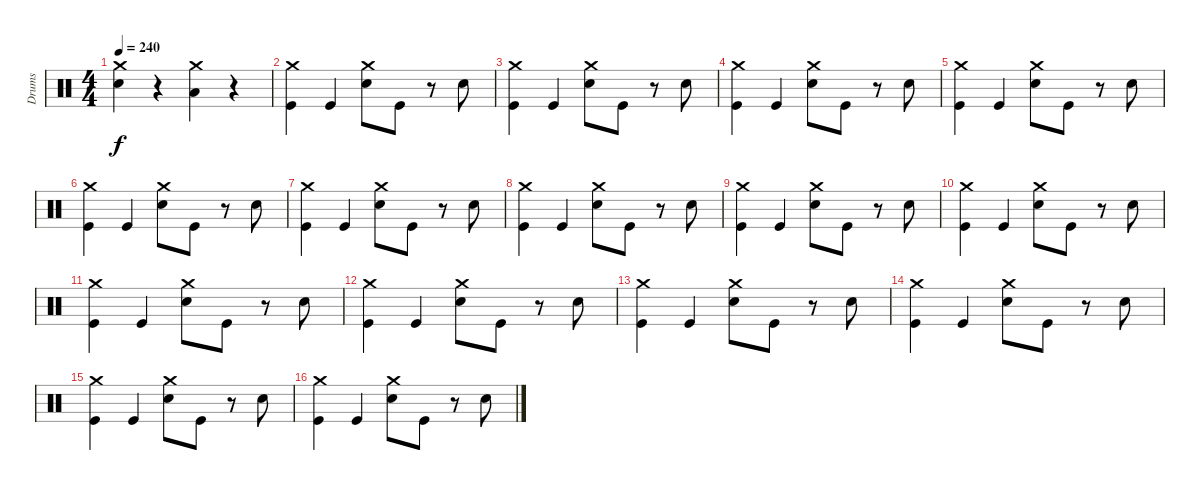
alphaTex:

\track ("Drums" "Drums") {instrument percussion}
\staff {score}
\articulation defaults
\ts (4 4)
\tempo 240
\clef neutral
\ks c
("Crash medium (hit)" "Snare (hit) 2").4{dy f} r.4 ("Crash medium (hit)" "Low Tom (hit)").4 r.4 |
("Crash medium (hit)" "Kick (hit)").4 "Kick (hit)".4 ("Crash medium (hit)" "Snare (hit) 2").8 "Kick (hit)".8 r.8 "Snare (hit) 2".8 |
("Crash medium (hit)" "Kick (hit)").4 "Kick (hit)".4 ("Crash medium (hit)" "Snare (hit) 2").8 "Kick (hit)".8 r.8 "Snare (hit) 2".8 |
("Crash medium (hit)" "Kick (hit)").4 "Kick (hit)".4 ("Crash medium (hit)" "Snare (hit) 2").8 "Kick (hit)".8 r.8 "Snare (hit) 2".8 |
("Crash medium (hit)" "Kick (hit)").4 "Kick (hit)".4 ("Crash medium (hit)" "Snare (hit) 2").8 "Kick (hit)".8 r.8 "Snare (hit) 2".8 |
("Crash medium (hit)" "Kick (hit)").4 "Kick (hit)".4 ("Crash medium (hit)" "Snare (hit) 2").8 "Kick (hit)".8 r.8 "Snare (hit) 2".8 |
("Crash medium (hit)" "Kick (hit)").4 "Kick (hit)".4 ("Crash medium (hit)" "Snare (hit) 2").8 "Kick (hit)".8 r.8 "Snare (hit) 2".8 |
("Crash medium (hit)" "Kick (hit)").4 "Kick (hit)".4 ("Crash medium (hit)" "Snare (hit) 2").8 "Kick (hit)".8 r.8 "Snare (hit) 2".8 |
("Crash medium (hit)" "Kick (hit)").4 "Kick (hit)".4 ("Crash medium (hit)" "Snare (hit) 2").8 "Kick (hit)".8 r.8 "Snare (hit) 2".8 |
("Crash medium (hit)" "Kick (hit)").4 "Kick (hit)".4 ("Crash medium (hit)" "Snare (hit) 2").8 "Kick (hit)".8 r.8 "Snare (hit) 2".8 |
("Crash medium (hit)" "Kick (hit)").4 "Kick (hit)".4 ("Crash medium (hit)" "Snare (hit) 2").8 "Kick (hit)".8 r.8 "Snare (hit) 2".8 |
("Crash medium (hit)" "Kick (hit)").4 "Kick (hit)".4 ("Crash medium (hit)" "Snare (hit) 2").8 "Kick (hit)".8 r.8 "Snare (hit) 2".8 |
("Crash medium (hit)" "Kick (hit)").4 "Kick (hit)".4 ("Crash medium (hit)" "Snare (hit) 2").8 "Kick (hit)".8 r.8 "Snare (hit) 2".8 |
("Crash medium (hit)" "Kick (hit)").4 "Kick (hit)".4 ("Crash medium (hit)" "Snare (hit) 2").8 "Kick (hit)".8 r.8 "Snare (hit) 2".8 |
("Crash medium (hit)" "Kick (hit)").4 "Kick (hit)".4 ("Crash medium (hit)" "Snare (hit) 2").8 "Kick (hit)".8 r.8 "Snare (hit) 2".8 |
("Crash medium (hit)" "Kick (hit)").4 "Kick (hit)".4 ("Crash medium (hit)" "Snare (hit) 2").8 "Kick (hit)".8 r.8 "Snare (hit) 2".8
